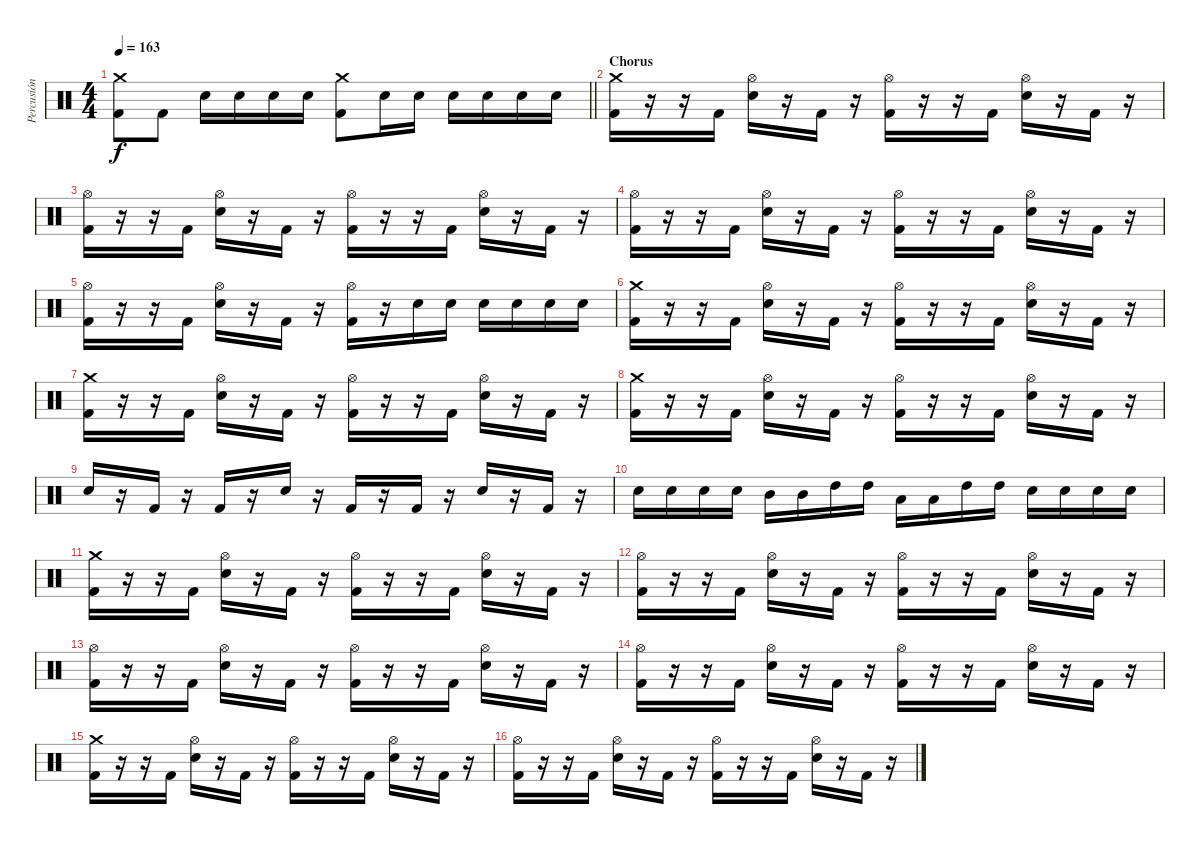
\track ("Percusión" "Percusión") {instrument percussion}
\staff {score}
\articulation defaults
\ts (4 4)
\tempo 163
\clef neutral
\barLineRight lightlight
\ks c
("Crash medium (hit)" "Kick (hit) 2").8{dy f} "Kick (hit) 2".8 "Snare (hit) 2".16 "Snare (hit) 2".16 "Snare (hit) 2".16 "Snare (hit) 2".16 ("Crash medium (hit)" "Kick (hit) 2").8 "Snare (hit) 2".16 "Snare (hit) 2".16 "Snare (hit) 2".16 "Snare (hit) 2".16 "Snare (hit) 2".16 "Snare (hit) 2".16 |
\section ("" "Chorus")
("Crash medium (hit)" "Kick (hit) 2").16 r.16 r.16 "Kick (hit) 2".16 ("Hi-Hat (open)" "Snare (hit) 2").16 r.16 "Kick (hit) 2".16 r.16 ("Hi-Hat (open)" "Kick (hit) 2").16 r.16 r.16 "Kick (hit) 2".16 ("Hi-Hat (open)" "Snare (hit) 2").16 r.16 "Kick (hit) 2".16 r.16 |
("Hi-Hat (open)" "Kick (hit) 2").16 r.16 r.16 "Kick (hit) 2".16 ("Hi-Hat (open)" "Snare (hit) 2").16 r.16 "Kick (hit) 2".16 r.16 ("Hi-Hat (open)" "Kick (hit) 2").16 r.16 r.16 "Kick (hit) 2".16 ("Hi-Hat (open)" "Snare (hit) 2").16 r.16 "Kick (hit) 2".16 r.16 |
("Hi-Hat (open)" "Kick (hit) 2").16 r.16 r.16 "Kick (hit) 2".16 ("Hi-Hat (open)" "Snare (hit) 2").16 r.16 "Kick (hit) 2".16 r.16 ("Hi-Hat (open)" "Kick (hit) 2").16 r.16 r.16 "Kick (hit) 2".16 ("Hi-Hat (open)" "Snare (hit) 2").16 r.16 "Kick (hit) 2".16 r.16 |
("Hi-Hat (open)" "Kick (hit) 2").16 r.16 r.16 "Kick (hit) 2".16 ("Hi-Hat (open)" "Snare (hit) 2").16 r.16 "Kick (hit) 2".16 r.16 ("Hi-Hat (open)" "Kick (hit) 2").16 r.16 "Snare (hit) 2".16 "Snare (hit) 2".16 "Snare (hit) 2".16 "Snare (hit) 2".16 "Snare (hit) 2".16 "Snare (hit) 2".16 |
("Crash medium (hit)" "Kick (hit) 2").16 r.16 r.16 "Kick (hit) 2".16 ("Hi-Hat (open)" "Snare (hit) 2").16 r.16 "Kick (hit) 2".16 r.16 ("Hi-Hat (open)" "Kick (hit) 2").16 r.16 r.16 "Kick (hit) 2".16 ("Hi-Hat (open)" "Snare (hit) 2").16 r.16 "Kick (hit) 2".16 r.16 |
("Crash medium (hit)" "Kick (hit) 2").16 r.16 r.16 "Kick (hit) 2".16 ("Hi-Hat (open)" "Snare (hit) 2").16 r.16 "Kick (hit) 2".16 r.16 ("Hi-Hat (open)" "Kick (hit) 2").16 r.16 r.16 "Kick (hit) 2".16 ("Hi-Hat (open)" "Snare (hit) 2").16 r.16 "Kick (hit) 2".16 r.16 |
("Crash medium (hit)" "Kick (hit) 2").16 r.16 r.16 "Kick (hit) 2".16 ("Hi-Hat (open)" "Snare (hit) 2").16 r.16 "Kick (hit) 2".16 r.16 ("Hi-Hat (open)" "Kick (hit) 2").16 r.16 r.16 "Kick (hit) 2".16 ("Hi-Hat (open)" "Snare (hit) 2").16 r.16 "Kick (hit) 2".16 r.16 |
"Snare (hit) 2".16 r.16 "Kick (hit) 2".16 r.16 "Kick (hit) 2".16 r.16 "Snare (hit) 2".16 r.16 "Kick (hit) 2".16 r.16 "Kick (hit) 2".16 r.16 "Snare (hit) 2".16 r.16 "Kick (hit) 2".16 r.16 |
"Snare (hit) 2".16 "Snare (hit) 2".16 "Snare (hit) 2".16 "Snare (hit) 2".16 "Mid Tom (hit)".16 "Mid Tom (hit)".16 "High Tom (hit)".16 "High Tom (hit)".16 "Low Tom (hit)".16 "Low Tom (hit)".16 "High Tom (hit)".16 "High Tom (hit)".16 "Snare (hit) 2".16 "Snare (hit) 2".16 "Snare (hit) 2".16 "Snare (hit) 2".16 |
("Crash medium (hit)" "Kick (hit) 2").16 r.16 r.16 "Kick (hit) 2".16 ("Hi-Hat (open)" "Snare (hit) 2").16 r.16 "Kick (hit) 2".16 r.16 ("Hi-Hat (open)" "Kick (hit) 2").16 r.16 r.16 "Kick (hit) 2".16 ("Hi-Hat (open)" "Snare (hit) 2").16 r.16 "Kick (hit) 2".16 r.16 |
("Hi-Hat (open)" "Kick (hit) 2").16 r.16 r.16 "Kick (hit) 2".16 ("Hi-Hat (open)" "Snare (hit) 2").16 r.16 "Kick (hit) 2".16 r.16 ("Hi-Hat (open)" "Kick (hit) 2").16 r.16 r.16 "Kick (hit) 2".16 ("Hi-Hat (open)" "Snare (hit) 2").16 r.16 "Kick (hit) 2".16 r.16 |
("Hi-Hat (open)" "Kick (hit) 2").16 r.16 r.16 "Kick (hit) 2".16 ("Hi-Hat (open)" "Snare (hit) 2").16 r.16 "Kick (hit) 2".16 r.16 ("Hi-Hat (open)" "Kick (hit) 2").16 r.16 r.16 "Kick (hit) 2".16 ("Hi-Hat (open)" "Snare (hit) 2").16 r.16 "Kick (hit) 2".16 r.16 |
("Hi-Hat (open)" "Kick (hit) 2").16 r.16 r.16 "Kick (hit) 2".16 ("Hi-Hat (open)" "Snare (hit) 2").16 r.16 "Kick (hit) 2".16 r.16 ("Hi-Hat (open)" "Kick (hit) 2").16 r.16 r.16 "Kick (hit) 2".16 ("Hi-Hat (open)" "Snare (hit) 2").16 r.16 "Kick (hit) 2".16 r.16 |
("Crash medium (hit)" "Kick (hit) 2").16 r.16 r.16 "Kick (hit) 2".16 ("Hi-Hat (open)" "Snare (hit) 2").16 r.16 "Kick (hit) 2".16 r.16 ("Hi-Hat (open)" "Kick (hit) 2").16 r.16 r.16 "Kick (hit) 2".16 ("Hi-Hat (open)" "Snare (hit) 2").16 r.16 "Kick (hit) 2".16 r.16 |
("Hi-Hat (open)" "Kick (hit) 2").16 r.16 r.16 "Kick (hit) 2".16 ("Hi-Hat (open)" "Snare (hit) 2").16 r.16 "Kick (hit) 2".16 r.16 ("Hi-Hat (open)" "Kick (hit) 2").16 r.16 r.16 "Kick (hit) 2".16 ("Hi-Hat (open)" "Snare (hit) 2").16 r.16 "Kick (hit) 2".16 r.16
